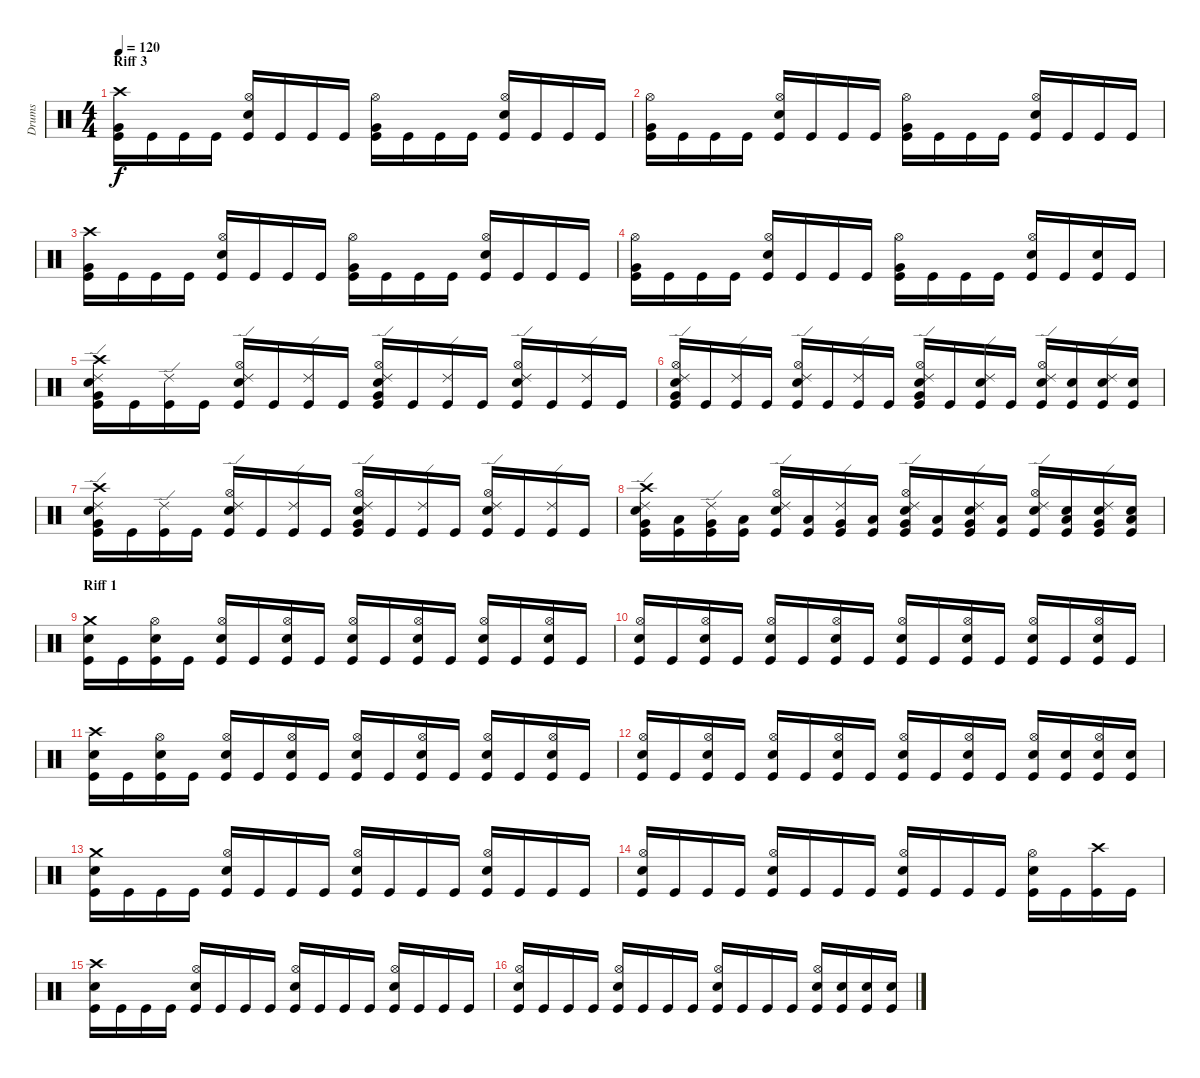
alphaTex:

\track ("Drums" "Drums") {instrument percussion}
\staff {score}
\articulation defaults
\ts (4 4)
\section ("" "Riff 3")
\tempo 120
\clef neutral
\ks c
("Crash high (hit)" "Very Low Tom (hit)" "Kick (hit)").16{dy f} "Kick (hit)".16 "Kick (hit)".16 "Kick (hit)".16 ("Hi-Hat (open)" "Snare (hit) 2" "Kick (hit)").16 "Kick (hit)".16 "Kick (hit)".16 "Kick (hit)".16 ("Hi-Hat (open)" "Very Low Tom (hit)" "Kick (hit)").16 "Kick (hit)".16 "Kick (hit)".16 "Kick (hit)".16 ("Hi-Hat (open)" "Snare (hit) 2" "Kick (hit)").16 "Kick (hit)".16 "Kick (hit)".16 "Kick (hit)".16 |
("Hi-Hat (open)" "Very Low Tom (hit)" "Kick (hit)").16 "Kick (hit)".16 "Kick (hit)".16 "Kick (hit)".16 ("Hi-Hat (open)" "Snare (hit) 2" "Kick (hit)").16 "Kick (hit)".16 "Kick (hit)".16 "Kick (hit)".16 ("Hi-Hat (open)" "Very Low Tom (hit)" "Kick (hit)").16 "Kick (hit)".16 "Kick (hit)".16 "Kick (hit)".16 ("Hi-Hat (open)" "Snare (hit) 2" "Kick (hit)").16 "Kick (hit)".16 "Kick (hit)".16 "Kick (hit)".16 |
("Crash high (hit)" "Very Low Tom (hit)" "Kick (hit)").16 "Kick (hit)".16 "Kick (hit)".16 "Kick (hit)".16 ("Hi-Hat (open)" "Snare (hit) 2" "Kick (hit)").16 "Kick (hit)".16 "Kick (hit)".16 "Kick (hit)".16 ("Hi-Hat (open)" "Very Low Tom (hit)" "Kick (hit)").16 "Kick (hit)".16 "Kick (hit)".16 "Kick (hit)".16 ("Hi-Hat (open)" "Snare (hit) 2" "Kick (hit)").16 "Kick (hit)".16 "Kick (hit)".16 "Kick (hit)".16 |
("Hi-Hat (open)" "Very Low Tom (hit)" "Kick (hit)").16 "Kick (hit)".16 "Kick (hit)".16 "Kick (hit)".16 ("Hi-Hat (open)" "Snare (hit) 2" "Kick (hit)").16 "Kick (hit)".16 "Kick (hit)".16 "Kick (hit)".16 ("Hi-Hat (open)" "Very Low Tom (hit)" "Kick (hit)").16 "Kick (hit)".16 "Kick (hit)".16 "Kick (hit)".16 ("Hi-Hat (open)" "Snare (hit) 2" "Kick (hit)").16 "Kick (hit)".16 ("Snare (hit) 2" "Kick (hit)").16 "Kick (hit)".16 |
("Crash high (hit)" "Ride (edge) 2" "Snare (hit) 2" "Very Low Tom (hit)" "Kick (hit)").16 "Kick (hit)".16 ("Ride (edge) 2" "Kick (hit)").16 "Kick (hit)".16 ("Hi-Hat (open)" "Ride (edge) 2" "Snare (hit) 2" "Kick (hit)").16 "Kick (hit)".16 ("Ride (edge) 2" "Kick (hit)").16 "Kick (hit)".16 ("Hi-Hat (open)" "Ride (edge) 2" "Snare (hit) 2" "Very Low Tom (hit)" "Kick (hit)").16 "Kick (hit)".16 ("Ride (edge) 2" "Kick (hit)").16 "Kick (hit)".16 ("Hi-Hat (open)" "Ride (edge) 2" "Snare (hit) 2" "Kick (hit)").16 "Kick (hit)".16 ("Ride (edge) 2" "Kick (hit)").16 "Kick (hit)".16 |
("Hi-Hat (open)" "Ride (edge) 2" "Snare (hit) 2" "Very Low Tom (hit)" "Kick (hit)").16 "Kick (hit)".16 ("Ride (edge) 2" "Kick (hit)").16 "Kick (hit)".16 ("Hi-Hat (open)" "Ride (edge) 2" "Snare (hit) 2" "Kick (hit)").16 "Kick (hit)".16 ("Ride (edge) 2" "Kick (hit)").16 "Kick (hit)".16 ("Hi-Hat (open)" "Ride (edge) 2" "Snare (hit) 2" "Very Low Tom (hit)" "Kick (hit)").16 "Kick (hit)".16 ("Ride (edge) 2" "Snare (hit) 2" "Kick (hit)").16 "Kick (hit)".16 ("Hi-Hat (open)" "Ride (edge) 2" "Snare (hit) 2" "Kick (hit)").16 ("Snare (hit) 2" "Kick (hit)").16 ("Ride (edge) 2" "Snare (hit) 2" "Kick (hit)").16 ("Snare (hit) 2" "Kick (hit)").16 |
("Crash high (hit)" "Ride (edge) 2" "Snare (hit) 2" "Very Low Tom (hit)" "Kick (hit)").16 "Kick (hit)".16 ("Ride (edge) 2" "Kick (hit)").16 "Kick (hit)".16 ("Hi-Hat (open)" "Ride (edge) 2" "Snare (hit) 2" "Kick (hit)").16 "Kick (hit)".16 ("Ride (edge) 2" "Kick (hit)").16 "Kick (hit)".16 ("Hi-Hat (open)" "Ride (edge) 2" "Snare (hit) 2" "Very Low Tom (hit)" "Kick (hit)").16 "Kick (hit)".16 ("Ride (edge) 2" "Kick (hit)").16 "Kick (hit)".16 ("Hi-Hat (open)" "Ride (edge) 2" "Snare (hit) 2" "Kick (hit)").16 "Kick (hit)".16 ("Ride (edge) 2" "Kick (hit)").16 "Kick (hit)".16 |
("Crash high (hit)" "Ride (edge) 2" "Snare (hit) 2" "Very Low Tom (hit)" "Kick (hit)").16 ("Low Tom (hit)" "Kick (hit)").16 ("Ride (edge) 2" "Very Low Tom (hit)" "Kick (hit)").16 ("Low Floor Tom (hit)" "Kick (hit)").16 ("Hi-Hat (open)" "Ride (edge) 2" "Snare (hit) 2" "Kick (hit)").16 ("Low Tom (hit)" "Kick (hit)").16 ("Ride (edge) 2" "Very Low Tom (hit)" "Kick (hit)").16 ("Low Floor Tom (hit)" "Kick (hit)").16 ("Hi-Hat (open)" "Ride (edge) 2" "Snare (hit) 2" "Very Low Tom (hit)" "Kick (hit)").16 ("Low Tom (hit)" "Kick (hit)").16 ("Ride (edge) 2" "Snare (hit) 2" "Very Low Tom (hit)" "Kick (hit)").16 ("Low Floor Tom (hit)" "Kick (hit)").16 ("Hi-Hat (open)" "Ride (edge) 2" "Snare (hit) 2" "Kick (hit)").16 ("Snare (hit) 2" "Low Tom (hit)" "Kick (hit)").16 ("Ride (edge) 2" "Snare (hit) 2" "Very Low Tom (hit)" "Kick (hit)").16 ("Snare (hit) 2" "Low Floor Tom (hit)" "Kick (hit)").16 |
\section ("" "Riff 1")
("Crash medium (hit)" "Snare (hit) 2" "Kick (hit)").16 "Kick (hit)".16 ("Hi-Hat (open)" "Snare (hit) 2" "Kick (hit)").16 "Kick (hit)".16 ("Hi-Hat (open)" "Snare (hit) 2" "Kick (hit)").16 "Kick (hit)".16 ("Hi-Hat (open)" "Snare (hit) 2" "Kick (hit)").16 "Kick (hit)".16 ("Hi-Hat (open)" "Snare (hit) 2" "Kick (hit)").16 "Kick (hit)".16 ("Hi-Hat (open)" "Snare (hit) 2" "Kick (hit)").16 "Kick (hit)".16 ("Hi-Hat (open)" "Snare (hit) 2" "Kick (hit)").16 "Kick (hit)".16 ("Hi-Hat (open)" "Snare (hit) 2" "Kick (hit)").16 "Kick (hit)".16 |
("Hi-Hat (open)" "Snare (hit) 2" "Kick (hit)").16 "Kick (hit)".16 ("Hi-Hat (open)" "Snare (hit) 2" "Kick (hit)").16 "Kick (hit)".16 ("Hi-Hat (open)" "Snare (hit) 2" "Kick (hit)").16 "Kick (hit)".16 ("Hi-Hat (open)" "Snare (hit) 2" "Kick (hit)").16 "Kick (hit)".16 ("Hi-Hat (open)" "Snare (hit) 2" "Kick (hit)").16 "Kick (hit)".16 ("Hi-Hat (open)" "Snare (hit) 2" "Kick (hit)").16 "Kick (hit)".16 ("Hi-Hat (open)" "Snare (hit) 2" "Kick (hit)").16 "Kick (hit)".16 ("Hi-Hat (open)" "Snare (hit) 2" "Kick (hit)").16 "Kick (hit)".16 |
("Crash high (hit)" "Snare (hit) 2" "Kick (hit)").16 "Kick (hit)".16 ("Hi-Hat (open)" "Snare (hit) 2" "Kick (hit)").16 "Kick (hit)".16 ("Hi-Hat (open)" "Snare (hit) 2" "Kick (hit)").16 "Kick (hit)".16 ("Hi-Hat (open)" "Snare (hit) 2" "Kick (hit)").16 "Kick (hit)".16 ("Hi-Hat (open)" "Snare (hit) 2" "Kick (hit)").16 "Kick (hit)".16 ("Hi-Hat (open)" "Snare (hit) 2" "Kick (hit)").16 "Kick (hit)".16 ("Hi-Hat (open)" "Snare (hit) 2" "Kick (hit)").16 "Kick (hit)".16 ("Hi-Hat (open)" "Snare (hit) 2" "Kick (hit)").16 "Kick (hit)".16 |
("Hi-Hat (open)" "Snare (hit) 2" "Kick (hit)").16 "Kick (hit)".16 ("Hi-Hat (open)" "Snare (hit) 2" "Kick (hit)").16 "Kick (hit)".16 ("Hi-Hat (open)" "Snare (hit) 2" "Kick (hit)").16 "Kick (hit)".16 ("Hi-Hat (open)" "Snare (hit) 2" "Kick (hit)").16 "Kick (hit)".16 ("Hi-Hat (open)" "Snare (hit) 2" "Kick (hit)").16 "Kick (hit)".16 ("Hi-Hat (open)" "Snare (hit) 2" "Kick (hit)").16 "Kick (hit)".16 ("Hi-Hat (open)" "Snare (hit) 2" "Kick (hit)").16 ("Electric Snare (hit)" "Kick (hit)").16 ("Hi-Hat (open)" "Snare (hit) 2" "Kick (hit)").16 ("Snare (hit) 2" "Kick (hit)").16 |
("Crash medium (hit)" "Snare (hit) 2" "Kick (hit)").16 "Kick (hit)".16 "Kick (hit)".16 "Kick (hit)".16 ("Hi-Hat (open)" "Snare (hit) 2" "Kick (hit)").16 "Kick (hit)".16 "Kick (hit)".16 "Kick (hit)".16 ("Hi-Hat (open)" "Snare (hit) 2" "Kick (hit)").16 "Kick (hit)".16 "Kick (hit)".16 "Kick (hit)".16 ("Hi-Hat (open)" "Snare (hit) 2" "Kick (hit)").16 "Kick (hit)".16 "Kick (hit)".16 "Kick (hit)".16 |
("Hi-Hat (open)" "Snare (hit) 2" "Kick (hit)").16 "Kick (hit)".16 "Kick (hit)".16 "Kick (hit)".16 ("Hi-Hat (open)" "Snare (hit) 2" "Kick (hit)").16 "Kick (hit)".16 "Kick (hit)".16 "Kick (hit)".16 ("Hi-Hat (open)" "Snare (hit) 2" "Kick (hit)").16 "Kick (hit)".16 "Kick (hit)".16 "Kick (hit)".16 ("Hi-Hat (open)" "Snare (hit) 2" "Kick (hit)").16 "Kick (hit)".16 ("Crash high (hit)" "Kick (hit)").16 "Kick (hit)".16 |
("Crash high (hit)" "Snare (hit) 2" "Kick (hit)").16 "Kick (hit)".16 "Kick (hit)".16 "Kick (hit)".16 ("Hi-Hat (open)" "Snare (hit) 2" "Kick (hit)").16 "Kick (hit)".16 "Kick (hit)".16 "Kick (hit)".16 ("Hi-Hat (open)" "Snare (hit) 2" "Kick (hit)").16 "Kick (hit)".16 "Kick (hit)".16 "Kick (hit)".16 ("Hi-Hat (open)" "Snare (hit) 2" "Kick (hit)").16 "Kick (hit)".16 "Kick (hit)".16 "Kick (hit)".16 |
("Hi-Hat (open)" "Snare (hit) 2" "Kick (hit)").16 "Kick (hit)".16 "Kick (hit)".16 "Kick (hit)".16 ("Hi-Hat (open)" "Snare (hit) 2" "Kick (hit)").16 "Kick (hit)".16 "Kick (hit)".16 "Kick (hit)".16 ("Hi-Hat (open)" "Snare (hit) 2" "Kick (hit)").16 "Kick (hit)".16 "Kick (hit)".16 "Kick (hit)".16 ("Hi-Hat (open)" "Snare (hit) 2" "Kick (hit)").16 ("Electric Snare (hit)" "Kick (hit)").16 ("Snare (hit) 2" "Kick (hit)").16 ("Snare (hit) 2" "Kick (hit)").16
